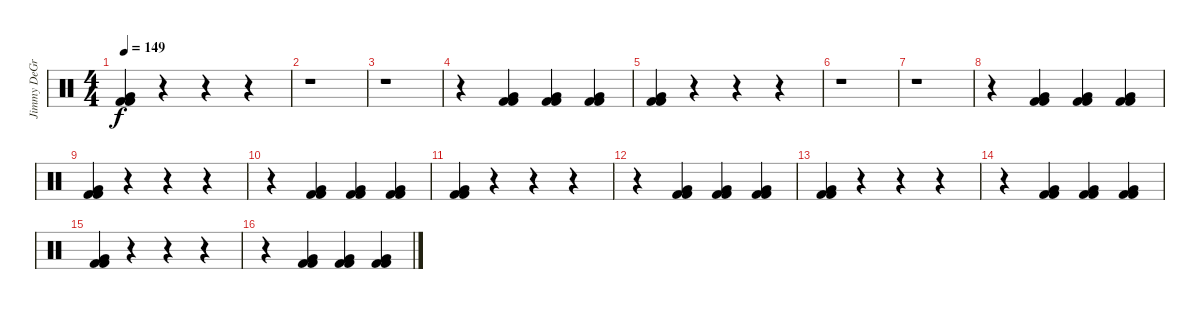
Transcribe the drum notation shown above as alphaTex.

\track ("Jimmy DeGrasso" "Jimmy DeGr") {instrument percussion}
\staff {score}
\articulation defaults
\ts (4 4)
\tempo 149
\clef neutral
\ks c
("Very Low Tom (hit)" "Kick (hit) 2" "Kick (hit) 2").4{dy f} r.4 r.4 r.4 |
r.1 |
r.1 |
r.4 ("Very Low Tom (hit)" "Kick (hit) 2" "Kick (hit) 2").4 ("Very Low Tom (hit)" "Kick (hit) 2" "Kick (hit) 2").4 ("Very Low Tom (hit)" "Kick (hit) 2" "Kick (hit) 2").4 |
("Very Low Tom (hit)" "Kick (hit) 2" "Kick (hit) 2").4 r.4 r.4 r.4 |
r.1 |
r.1 |
r.4 ("Very Low Tom (hit)" "Kick (hit) 2" "Kick (hit) 2").4 ("Very Low Tom (hit)" "Kick (hit) 2" "Kick (hit) 2").4 ("Very Low Tom (hit)" "Kick (hit) 2" "Kick (hit) 2").4 |
("Very Low Tom (hit)" "Kick (hit) 2" "Kick (hit) 2").4 r.4 r.4 r.4 |
r.4 ("Very Low Tom (hit)" "Kick (hit) 2" "Kick (hit) 2").4 ("Very Low Tom (hit)" "Kick (hit) 2" "Kick (hit) 2").4 ("Very Low Tom (hit)" "Kick (hit) 2" "Kick (hit) 2").4 |
("Very Low Tom (hit)" "Kick (hit) 2" "Kick (hit) 2").4 r.4 r.4 r.4 |
r.4 ("Very Low Tom (hit)" "Kick (hit) 2" "Kick (hit) 2").4 ("Very Low Tom (hit)" "Kick (hit) 2" "Kick (hit) 2").4 ("Very Low Tom (hit)" "Kick (hit) 2" "Kick (hit) 2").4 |
("Very Low Tom (hit)" "Kick (hit) 2" "Kick (hit) 2").4 r.4 r.4 r.4 |
r.4 ("Very Low Tom (hit)" "Kick (hit) 2" "Kick (hit) 2").4 ("Very Low Tom (hit)" "Kick (hit) 2" "Kick (hit) 2").4 ("Very Low Tom (hit)" "Kick (hit) 2" "Kick (hit) 2").4 |
("Very Low Tom (hit)" "Kick (hit) 2" "Kick (hit) 2").4 r.4 r.4 r.4 |
r.4 ("Very Low Tom (hit)" "Kick (hit) 2" "Kick (hit) 2").4 ("Very Low Tom (hit)" "Kick (hit) 2" "Kick (hit) 2").4 ("Very Low Tom (hit)" "Kick (hit) 2" "Kick (hit) 2").4
